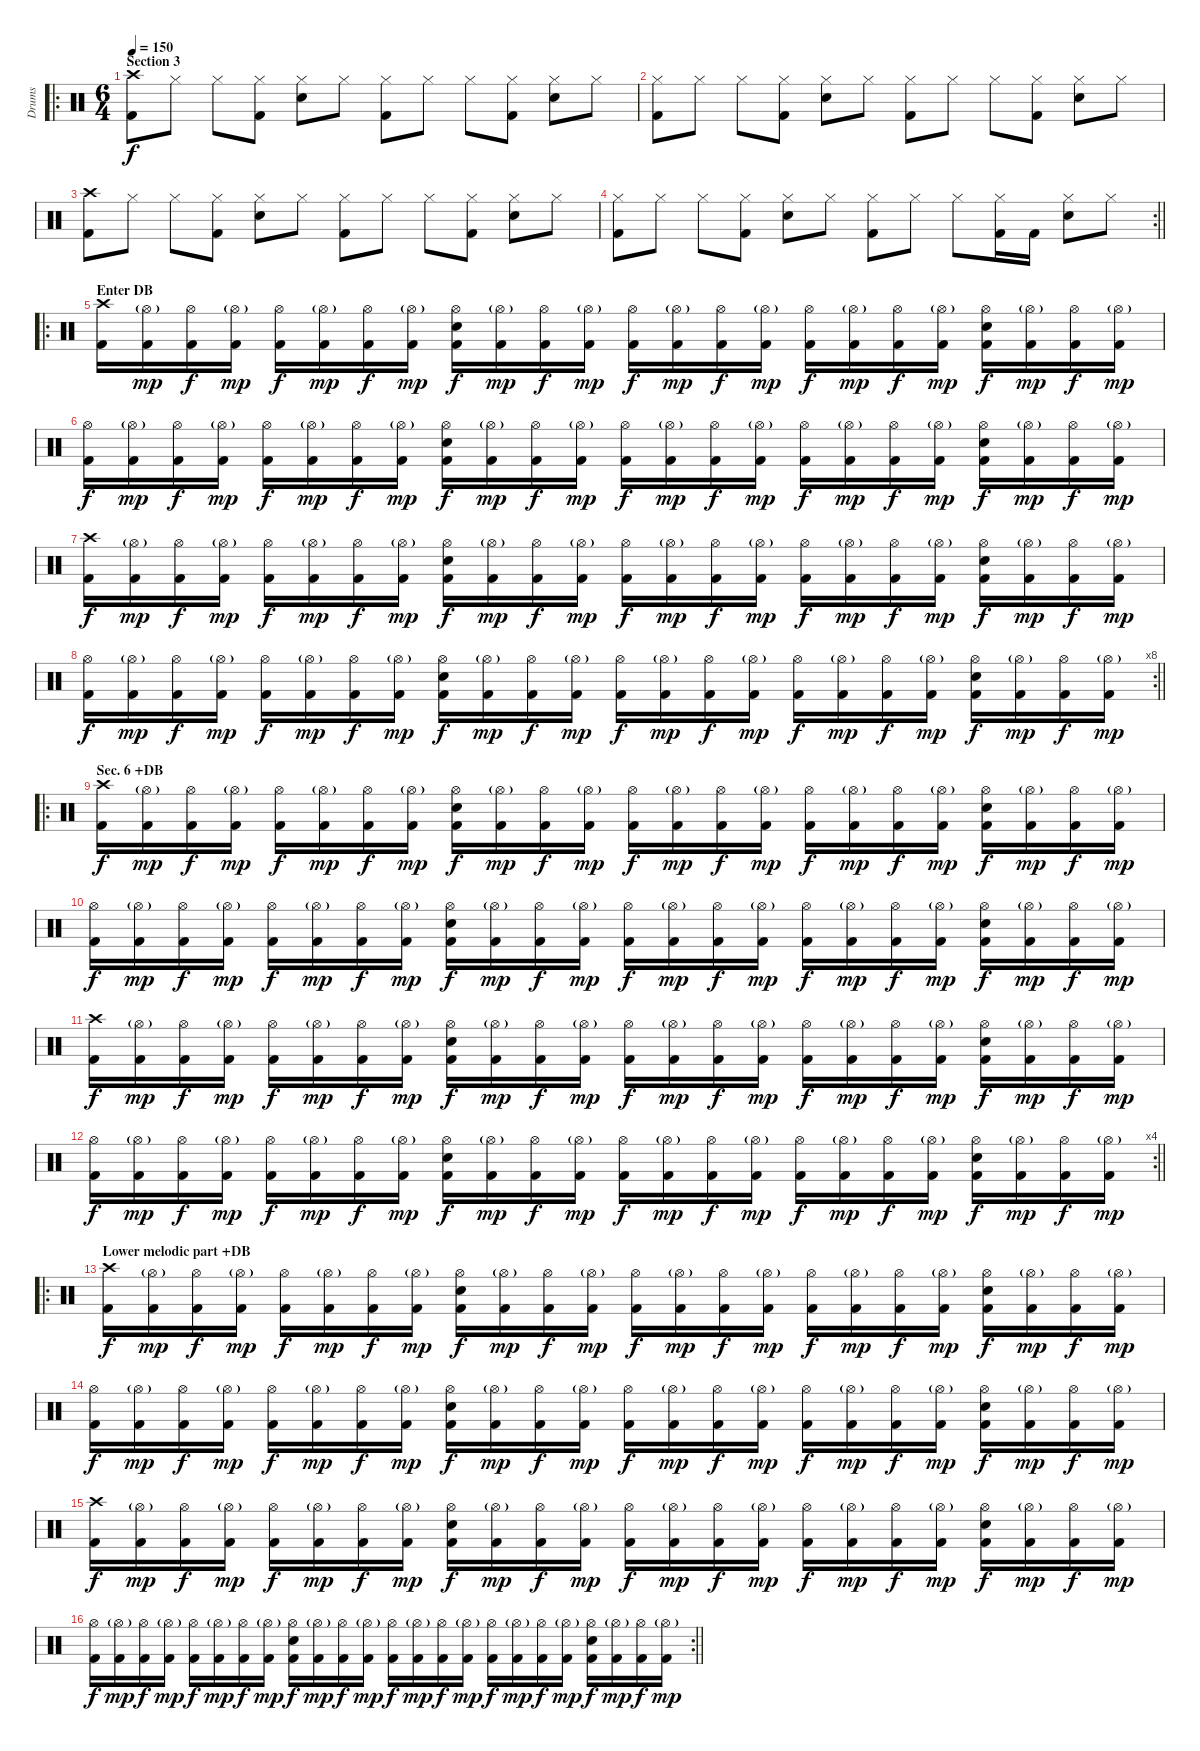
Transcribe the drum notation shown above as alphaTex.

\track ("Drums" "Drums") {instrument percussion}
\staff {score}
\articulation defaults
\ro
\ts (6 4)
\section ("" "Section 3")
\tempo 150
\clef neutral
\ks c
("Kick (hit) 2" "Crash high (hit)").8{dy f} "Hi-Hat (closed)".8 "Hi-Hat (closed)".8 ("Kick (hit) 2" "Hi-Hat (closed)").8 ("Snare (hit) 2" "Hi-Hat (closed)").8 "Hi-Hat (closed)".8 ("Kick (hit) 2" "Hi-Hat (closed)").8 "Hi-Hat (closed)".8 "Hi-Hat (closed)".8 ("Kick (hit) 2" "Hi-Hat (closed)").8 ("Snare (hit) 2" "Hi-Hat (closed)").8 "Hi-Hat (closed)".8 |
("Kick (hit) 2" "Hi-Hat (closed)").8 "Hi-Hat (closed)".8 "Hi-Hat (closed)".8 ("Kick (hit) 2" "Hi-Hat (closed)").8 ("Snare (hit) 2" "Hi-Hat (closed)").8 "Hi-Hat (closed)".8 ("Kick (hit) 2" "Hi-Hat (closed)").8 "Hi-Hat (closed)".8 "Hi-Hat (closed)".8 ("Kick (hit) 2" "Hi-Hat (closed)").8 ("Snare (hit) 2" "Hi-Hat (closed)").8 "Hi-Hat (closed)".8 |
("Kick (hit) 2" "Crash high (hit)").8 "Hi-Hat (closed)".8 "Hi-Hat (closed)".8 ("Kick (hit) 2" "Hi-Hat (closed)").8 ("Snare (hit) 2" "Hi-Hat (closed)").8 "Hi-Hat (closed)".8 ("Kick (hit) 2" "Hi-Hat (closed)").8 "Hi-Hat (closed)".8 "Hi-Hat (closed)".8 ("Kick (hit) 2" "Hi-Hat (closed)").8 ("Snare (hit) 2" "Hi-Hat (closed)").8 "Hi-Hat (closed)".8 |
\rc 2
\barLineRight lightlight
("Kick (hit) 2" "Hi-Hat (closed)").8 "Hi-Hat (closed)".8 "Hi-Hat (closed)".8 ("Kick (hit) 2" "Hi-Hat (closed)").8 ("Snare (hit) 2" "Hi-Hat (closed)").8 "Hi-Hat (closed)".8 ("Kick (hit) 2" "Hi-Hat (closed)").8 "Hi-Hat (closed)".8 "Hi-Hat (closed)".8 ("Kick (hit) 2" "Hi-Hat (closed)").16 "Kick (hit) 2".16 ("Snare (hit) 2" "Hi-Hat (closed)").8 "Hi-Hat (closed)".8 |
\ro
\section ("" "Enter DB")
("Kick (hit) 2" "Crash high (hit)").16 ("Kick (hit) 2" "Hi-Hat (open)"{g}).16{dy mp} ("Kick (hit) 2" "Hi-Hat (open)").16{dy f} ("Kick (hit) 2" "Hi-Hat (open)"{g}).16{dy mp} ("Kick (hit) 2" "Hi-Hat (open)").16{dy f} ("Kick (hit) 2" "Hi-Hat (open)"{g}).16{dy mp} ("Kick (hit) 2" "Hi-Hat (open)").16{dy f} ("Kick (hit) 2" "Hi-Hat (open)"{g}).16{dy mp} ("Kick (hit) 2" "Snare (hit) 2" "Hi-Hat (open)").16{dy f} ("Kick (hit) 2" "Hi-Hat (open)"{g}).16{dy mp} ("Kick (hit) 2" "Hi-Hat (open)").16{dy f} ("Kick (hit) 2" "Hi-Hat (open)"{g}).16{dy mp} ("Kick (hit) 2" "Hi-Hat (open)").16{dy f} ("Kick (hit) 2" "Hi-Hat (open)"{g}).16{dy mp} ("Kick (hit) 2" "Hi-Hat (open)").16{dy f} ("Kick (hit) 2" "Hi-Hat (open)"{g}).16{dy mp} ("Kick (hit) 2" "Hi-Hat (open)").16{dy f} ("Kick (hit) 2" "Hi-Hat (open)"{g}).16{dy mp} ("Kick (hit) 2" "Hi-Hat (open)").16{dy f} ("Kick (hit) 2" "Hi-Hat (open)"{g}).16{dy mp} ("Kick (hit) 2" "Snare (hit) 2" "Hi-Hat (open)").16{dy f} ("Kick (hit) 2" "Hi-Hat (open)"{g}).16{dy mp} ("Kick (hit) 2" "Hi-Hat (open)").16{dy f} ("Kick (hit) 2" "Hi-Hat (open)"{g}).16{dy mp} |
("Kick (hit) 2" "Hi-Hat (open)").16{dy f} ("Kick (hit) 2" "Hi-Hat (open)"{g}).16{dy mp} ("Kick (hit) 2" "Hi-Hat (open)").16{dy f} ("Kick (hit) 2" "Hi-Hat (open)"{g}).16{dy mp} ("Kick (hit) 2" "Hi-Hat (open)").16{dy f} ("Kick (hit) 2" "Hi-Hat (open)"{g}).16{dy mp} ("Kick (hit) 2" "Hi-Hat (open)").16{dy f} ("Kick (hit) 2" "Hi-Hat (open)"{g}).16{dy mp} ("Kick (hit) 2" "Snare (hit) 2" "Hi-Hat (open)").16{dy f} ("Kick (hit) 2" "Hi-Hat (open)"{g}).16{dy mp} ("Kick (hit) 2" "Hi-Hat (open)").16{dy f} ("Kick (hit) 2" "Hi-Hat (open)"{g}).16{dy mp} ("Kick (hit) 2" "Hi-Hat (open)").16{dy f} ("Kick (hit) 2" "Hi-Hat (open)"{g}).16{dy mp} ("Kick (hit) 2" "Hi-Hat (open)").16{dy f} ("Kick (hit) 2" "Hi-Hat (open)"{g}).16{dy mp} ("Kick (hit) 2" "Hi-Hat (open)").16{dy f} ("Kick (hit) 2" "Hi-Hat (open)"{g}).16{dy mp} ("Kick (hit) 2" "Hi-Hat (open)").16{dy f} ("Kick (hit) 2" "Hi-Hat (open)"{g}).16{dy mp} ("Kick (hit) 2" "Snare (hit) 2" "Hi-Hat (open)").16{dy f} ("Kick (hit) 2" "Hi-Hat (open)"{g}).16{dy mp} ("Kick (hit) 2" "Hi-Hat (open)").16{dy f} ("Kick (hit) 2" "Hi-Hat (open)"{g}).16{dy mp} |
("Kick (hit) 2" "Crash high (hit)").16{dy f} ("Kick (hit) 2" "Hi-Hat (open)"{g}).16{dy mp} ("Kick (hit) 2" "Hi-Hat (open)").16{dy f} ("Kick (hit) 2" "Hi-Hat (open)"{g}).16{dy mp} ("Kick (hit) 2" "Hi-Hat (open)").16{dy f} ("Kick (hit) 2" "Hi-Hat (open)"{g}).16{dy mp} ("Kick (hit) 2" "Hi-Hat (open)").16{dy f} ("Kick (hit) 2" "Hi-Hat (open)"{g}).16{dy mp} ("Kick (hit) 2" "Snare (hit) 2" "Hi-Hat (open)").16{dy f} ("Kick (hit) 2" "Hi-Hat (open)"{g}).16{dy mp} ("Kick (hit) 2" "Hi-Hat (open)").16{dy f} ("Kick (hit) 2" "Hi-Hat (open)"{g}).16{dy mp} ("Kick (hit) 2" "Hi-Hat (open)").16{dy f} ("Kick (hit) 2" "Hi-Hat (open)"{g}).16{dy mp} ("Kick (hit) 2" "Hi-Hat (open)").16{dy f} ("Kick (hit) 2" "Hi-Hat (open)"{g}).16{dy mp} ("Kick (hit) 2" "Hi-Hat (open)").16{dy f} ("Kick (hit) 2" "Hi-Hat (open)"{g}).16{dy mp} ("Kick (hit) 2" "Hi-Hat (open)").16{dy f} ("Kick (hit) 2" "Hi-Hat (open)"{g}).16{dy mp} ("Kick (hit) 2" "Snare (hit) 2" "Hi-Hat (open)").16{dy f} ("Kick (hit) 2" "Hi-Hat (open)"{g}).16{dy mp} ("Kick (hit) 2" "Hi-Hat (open)").16{dy f} ("Kick (hit) 2" "Hi-Hat (open)"{g}).16{dy mp} |
\rc 8
\barLineRight lightlight
("Kick (hit) 2" "Hi-Hat (open)").16{dy f} ("Kick (hit) 2" "Hi-Hat (open)"{g}).16{dy mp} ("Kick (hit) 2" "Hi-Hat (open)").16{dy f} ("Kick (hit) 2" "Hi-Hat (open)"{g}).16{dy mp} ("Kick (hit) 2" "Hi-Hat (open)").16{dy f} ("Kick (hit) 2" "Hi-Hat (open)"{g}).16{dy mp} ("Kick (hit) 2" "Hi-Hat (open)").16{dy f} ("Kick (hit) 2" "Hi-Hat (open)"{g}).16{dy mp} ("Kick (hit) 2" "Snare (hit) 2" "Hi-Hat (open)").16{dy f} ("Kick (hit) 2" "Hi-Hat (open)"{g}).16{dy mp} ("Kick (hit) 2" "Hi-Hat (open)").16{dy f} ("Kick (hit) 2" "Hi-Hat (open)"{g}).16{dy mp} ("Kick (hit) 2" "Hi-Hat (open)").16{dy f} ("Kick (hit) 2" "Hi-Hat (open)"{g}).16{dy mp} ("Kick (hit) 2" "Hi-Hat (open)").16{dy f} ("Kick (hit) 2" "Hi-Hat (open)"{g}).16{dy mp} ("Kick (hit) 2" "Hi-Hat (open)").16{dy f} ("Kick (hit) 2" "Hi-Hat (open)"{g}).16{dy mp} ("Kick (hit) 2" "Hi-Hat (open)").16{dy f} ("Kick (hit) 2" "Hi-Hat (open)"{g}).16{dy mp} ("Kick (hit) 2" "Snare (hit) 2" "Hi-Hat (open)").16{dy f} ("Kick (hit) 2" "Hi-Hat (open)"{g}).16{dy mp} ("Kick (hit) 2" "Hi-Hat (open)").16{dy f} ("Kick (hit) 2" "Hi-Hat (open)"{g}).16{dy mp} |
\ro
\section ("" "Sec. 6 +DB")
("Kick (hit) 2" "Crash high (hit)").16{dy f} ("Kick (hit) 2" "Hi-Hat (open)"{g}).16{dy mp} ("Kick (hit) 2" "Hi-Hat (open)").16{dy f} ("Kick (hit) 2" "Hi-Hat (open)"{g}).16{dy mp} ("Kick (hit) 2" "Hi-Hat (open)").16{dy f} ("Kick (hit) 2" "Hi-Hat (open)"{g}).16{dy mp} ("Kick (hit) 2" "Hi-Hat (open)").16{dy f} ("Kick (hit) 2" "Hi-Hat (open)"{g}).16{dy mp} ("Kick (hit) 2" "Snare (hit) 2" "Hi-Hat (open)").16{dy f} ("Kick (hit) 2" "Hi-Hat (open)"{g}).16{dy mp} ("Kick (hit) 2" "Hi-Hat (open)").16{dy f} ("Kick (hit) 2" "Hi-Hat (open)"{g}).16{dy mp} ("Kick (hit) 2" "Hi-Hat (open)").16{dy f} ("Kick (hit) 2" "Hi-Hat (open)"{g}).16{dy mp} ("Kick (hit) 2" "Hi-Hat (open)").16{dy f} ("Kick (hit) 2" "Hi-Hat (open)"{g}).16{dy mp} ("Kick (hit) 2" "Hi-Hat (open)").16{dy f} ("Kick (hit) 2" "Hi-Hat (open)"{g}).16{dy mp} ("Kick (hit) 2" "Hi-Hat (open)").16{dy f} ("Kick (hit) 2" "Hi-Hat (open)"{g}).16{dy mp} ("Kick (hit) 2" "Snare (hit) 2" "Hi-Hat (open)").16{dy f} ("Kick (hit) 2" "Hi-Hat (open)"{g}).16{dy mp} ("Kick (hit) 2" "Hi-Hat (open)").16{dy f} ("Kick (hit) 2" "Hi-Hat (open)"{g}).16{dy mp} |
("Kick (hit) 2" "Hi-Hat (open)").16{dy f} ("Kick (hit) 2" "Hi-Hat (open)"{g}).16{dy mp} ("Kick (hit) 2" "Hi-Hat (open)").16{dy f} ("Kick (hit) 2" "Hi-Hat (open)"{g}).16{dy mp} ("Kick (hit) 2" "Hi-Hat (open)").16{dy f} ("Kick (hit) 2" "Hi-Hat (open)"{g}).16{dy mp} ("Kick (hit) 2" "Hi-Hat (open)").16{dy f} ("Kick (hit) 2" "Hi-Hat (open)"{g}).16{dy mp} ("Kick (hit) 2" "Snare (hit) 2" "Hi-Hat (open)").16{dy f} ("Kick (hit) 2" "Hi-Hat (open)"{g}).16{dy mp} ("Kick (hit) 2" "Hi-Hat (open)").16{dy f} ("Kick (hit) 2" "Hi-Hat (open)"{g}).16{dy mp} ("Kick (hit) 2" "Hi-Hat (open)").16{dy f} ("Kick (hit) 2" "Hi-Hat (open)"{g}).16{dy mp} ("Kick (hit) 2" "Hi-Hat (open)").16{dy f} ("Kick (hit) 2" "Hi-Hat (open)"{g}).16{dy mp} ("Kick (hit) 2" "Hi-Hat (open)").16{dy f} ("Kick (hit) 2" "Hi-Hat (open)"{g}).16{dy mp} ("Kick (hit) 2" "Hi-Hat (open)").16{dy f} ("Kick (hit) 2" "Hi-Hat (open)"{g}).16{dy mp} ("Kick (hit) 2" "Snare (hit) 2" "Hi-Hat (open)").16{dy f} ("Kick (hit) 2" "Hi-Hat (open)"{g}).16{dy mp} ("Kick (hit) 2" "Hi-Hat (open)").16{dy f} ("Kick (hit) 2" "Hi-Hat (open)"{g}).16{dy mp} |
("Kick (hit) 2" "Crash high (hit)").16{dy f} ("Kick (hit) 2" "Hi-Hat (open)"{g}).16{dy mp} ("Kick (hit) 2" "Hi-Hat (open)").16{dy f} ("Kick (hit) 2" "Hi-Hat (open)"{g}).16{dy mp} ("Kick (hit) 2" "Hi-Hat (open)").16{dy f} ("Kick (hit) 2" "Hi-Hat (open)"{g}).16{dy mp} ("Kick (hit) 2" "Hi-Hat (open)").16{dy f} ("Kick (hit) 2" "Hi-Hat (open)"{g}).16{dy mp} ("Kick (hit) 2" "Snare (hit) 2" "Hi-Hat (open)").16{dy f} ("Kick (hit) 2" "Hi-Hat (open)"{g}).16{dy mp} ("Kick (hit) 2" "Hi-Hat (open)").16{dy f} ("Kick (hit) 2" "Hi-Hat (open)"{g}).16{dy mp} ("Kick (hit) 2" "Hi-Hat (open)").16{dy f} ("Kick (hit) 2" "Hi-Hat (open)"{g}).16{dy mp} ("Kick (hit) 2" "Hi-Hat (open)").16{dy f} ("Kick (hit) 2" "Hi-Hat (open)"{g}).16{dy mp} ("Kick (hit) 2" "Hi-Hat (open)").16{dy f} ("Kick (hit) 2" "Hi-Hat (open)"{g}).16{dy mp} ("Kick (hit) 2" "Hi-Hat (open)").16{dy f} ("Kick (hit) 2" "Hi-Hat (open)"{g}).16{dy mp} ("Kick (hit) 2" "Snare (hit) 2" "Hi-Hat (open)").16{dy f} ("Kick (hit) 2" "Hi-Hat (open)"{g}).16{dy mp} ("Kick (hit) 2" "Hi-Hat (open)").16{dy f} ("Kick (hit) 2" "Hi-Hat (open)"{g}).16{dy mp} |
\rc 4
\barLineRight lightlight
("Kick (hit) 2" "Hi-Hat (open)").16{dy f} ("Kick (hit) 2" "Hi-Hat (open)"{g}).16{dy mp} ("Kick (hit) 2" "Hi-Hat (open)").16{dy f} ("Kick (hit) 2" "Hi-Hat (open)"{g}).16{dy mp} ("Kick (hit) 2" "Hi-Hat (open)").16{dy f} ("Kick (hit) 2" "Hi-Hat (open)"{g}).16{dy mp} ("Kick (hit) 2" "Hi-Hat (open)").16{dy f} ("Kick (hit) 2" "Hi-Hat (open)"{g}).16{dy mp} ("Kick (hit) 2" "Snare (hit) 2" "Hi-Hat (open)").16{dy f} ("Kick (hit) 2" "Hi-Hat (open)"{g}).16{dy mp} ("Kick (hit) 2" "Hi-Hat (open)").16{dy f} ("Kick (hit) 2" "Hi-Hat (open)"{g}).16{dy mp} ("Kick (hit) 2" "Hi-Hat (open)").16{dy f} ("Kick (hit) 2" "Hi-Hat (open)"{g}).16{dy mp} ("Kick (hit) 2" "Hi-Hat (open)").16{dy f} ("Kick (hit) 2" "Hi-Hat (open)"{g}).16{dy mp} ("Kick (hit) 2" "Hi-Hat (open)").16{dy f} ("Kick (hit) 2" "Hi-Hat (open)"{g}).16{dy mp} ("Kick (hit) 2" "Hi-Hat (open)").16{dy f} ("Kick (hit) 2" "Hi-Hat (open)"{g}).16{dy mp} ("Kick (hit) 2" "Snare (hit) 2" "Hi-Hat (open)").16{dy f} ("Kick (hit) 2" "Hi-Hat (open)"{g}).16{dy mp} ("Kick (hit) 2" "Hi-Hat (open)").16{dy f} ("Kick (hit) 2" "Hi-Hat (open)"{g}).16{dy mp} |
\ro
\section ("" "Lower melodic part +DB")
("Kick (hit) 2" "Crash high (hit)").16{dy f} ("Kick (hit) 2" "Hi-Hat (open)"{g}).16{dy mp} ("Kick (hit) 2" "Hi-Hat (open)").16{dy f} ("Kick (hit) 2" "Hi-Hat (open)"{g}).16{dy mp} ("Kick (hit) 2" "Hi-Hat (open)").16{dy f} ("Kick (hit) 2" "Hi-Hat (open)"{g}).16{dy mp} ("Kick (hit) 2" "Hi-Hat (open)").16{dy f} ("Kick (hit) 2" "Hi-Hat (open)"{g}).16{dy mp} ("Kick (hit) 2" "Snare (hit) 2" "Hi-Hat (open)").16{dy f} ("Kick (hit) 2" "Hi-Hat (open)"{g}).16{dy mp} ("Kick (hit) 2" "Hi-Hat (open)").16{dy f} ("Kick (hit) 2" "Hi-Hat (open)"{g}).16{dy mp} ("Kick (hit) 2" "Hi-Hat (open)").16{dy f} ("Kick (hit) 2" "Hi-Hat (open)"{g}).16{dy mp} ("Kick (hit) 2" "Hi-Hat (open)").16{dy f} ("Kick (hit) 2" "Hi-Hat (open)"{g}).16{dy mp} ("Kick (hit) 2" "Hi-Hat (open)").16{dy f} ("Kick (hit) 2" "Hi-Hat (open)"{g}).16{dy mp} ("Kick (hit) 2" "Hi-Hat (open)").16{dy f} ("Kick (hit) 2" "Hi-Hat (open)"{g}).16{dy mp} ("Kick (hit) 2" "Snare (hit) 2" "Hi-Hat (open)").16{dy f} ("Kick (hit) 2" "Hi-Hat (open)"{g}).16{dy mp} ("Kick (hit) 2" "Hi-Hat (open)").16{dy f} ("Kick (hit) 2" "Hi-Hat (open)"{g}).16{dy mp} |
("Kick (hit) 2" "Hi-Hat (open)").16{dy f} ("Kick (hit) 2" "Hi-Hat (open)"{g}).16{dy mp} ("Kick (hit) 2" "Hi-Hat (open)").16{dy f} ("Kick (hit) 2" "Hi-Hat (open)"{g}).16{dy mp} ("Kick (hit) 2" "Hi-Hat (open)").16{dy f} ("Kick (hit) 2" "Hi-Hat (open)"{g}).16{dy mp} ("Kick (hit) 2" "Hi-Hat (open)").16{dy f} ("Kick (hit) 2" "Hi-Hat (open)"{g}).16{dy mp} ("Kick (hit) 2" "Snare (hit) 2" "Hi-Hat (open)").16{dy f} ("Kick (hit) 2" "Hi-Hat (open)"{g}).16{dy mp} ("Kick (hit) 2" "Hi-Hat (open)").16{dy f} ("Kick (hit) 2" "Hi-Hat (open)"{g}).16{dy mp} ("Kick (hit) 2" "Hi-Hat (open)").16{dy f} ("Kick (hit) 2" "Hi-Hat (open)"{g}).16{dy mp} ("Kick (hit) 2" "Hi-Hat (open)").16{dy f} ("Kick (hit) 2" "Hi-Hat (open)"{g}).16{dy mp} ("Kick (hit) 2" "Hi-Hat (open)").16{dy f} ("Kick (hit) 2" "Hi-Hat (open)"{g}).16{dy mp} ("Kick (hit) 2" "Hi-Hat (open)").16{dy f} ("Kick (hit) 2" "Hi-Hat (open)"{g}).16{dy mp} ("Kick (hit) 2" "Snare (hit) 2" "Hi-Hat (open)").16{dy f} ("Kick (hit) 2" "Hi-Hat (open)"{g}).16{dy mp} ("Kick (hit) 2" "Hi-Hat (open)").16{dy f} ("Kick (hit) 2" "Hi-Hat (open)"{g}).16{dy mp} |
("Kick (hit) 2" "Crash high (hit)").16{dy f} ("Kick (hit) 2" "Hi-Hat (open)"{g}).16{dy mp} ("Kick (hit) 2" "Hi-Hat (open)").16{dy f} ("Kick (hit) 2" "Hi-Hat (open)"{g}).16{dy mp} ("Kick (hit) 2" "Hi-Hat (open)").16{dy f} ("Kick (hit) 2" "Hi-Hat (open)"{g}).16{dy mp} ("Kick (hit) 2" "Hi-Hat (open)").16{dy f} ("Kick (hit) 2" "Hi-Hat (open)"{g}).16{dy mp} ("Kick (hit) 2" "Snare (hit) 2" "Hi-Hat (open)").16{dy f} ("Kick (hit) 2" "Hi-Hat (open)"{g}).16{dy mp} ("Kick (hit) 2" "Hi-Hat (open)").16{dy f} ("Kick (hit) 2" "Hi-Hat (open)"{g}).16{dy mp} ("Kick (hit) 2" "Hi-Hat (open)").16{dy f} ("Kick (hit) 2" "Hi-Hat (open)"{g}).16{dy mp} ("Kick (hit) 2" "Hi-Hat (open)").16{dy f} ("Kick (hit) 2" "Hi-Hat (open)"{g}).16{dy mp} ("Kick (hit) 2" "Hi-Hat (open)").16{dy f} ("Kick (hit) 2" "Hi-Hat (open)"{g}).16{dy mp} ("Kick (hit) 2" "Hi-Hat (open)").16{dy f} ("Kick (hit) 2" "Hi-Hat (open)"{g}).16{dy mp} ("Kick (hit) 2" "Snare (hit) 2" "Hi-Hat (open)").16{dy f} ("Kick (hit) 2" "Hi-Hat (open)"{g}).16{dy mp} ("Kick (hit) 2" "Hi-Hat (open)").16{dy f} ("Kick (hit) 2" "Hi-Hat (open)"{g}).16{dy mp} |
\rc 2
\barLineRight lightlight
("Kick (hit) 2" "Hi-Hat (open)").16{dy f} ("Kick (hit) 2" "Hi-Hat (open)"{g}).16{dy mp} ("Kick (hit) 2" "Hi-Hat (open)").16{dy f} ("Kick (hit) 2" "Hi-Hat (open)"{g}).16{dy mp} ("Kick (hit) 2" "Hi-Hat (open)").16{dy f} ("Kick (hit) 2" "Hi-Hat (open)"{g}).16{dy mp} ("Kick (hit) 2" "Hi-Hat (open)").16{dy f} ("Kick (hit) 2" "Hi-Hat (open)"{g}).16{dy mp} ("Kick (hit) 2" "Snare (hit) 2" "Hi-Hat (open)").16{dy f} ("Kick (hit) 2" "Hi-Hat (open)"{g}).16{dy mp} ("Kick (hit) 2" "Hi-Hat (open)").16{dy f} ("Kick (hit) 2" "Hi-Hat (open)"{g}).16{dy mp} ("Kick (hit) 2" "Hi-Hat (open)").16{dy f} ("Kick (hit) 2" "Hi-Hat (open)"{g}).16{dy mp} ("Kick (hit) 2" "Hi-Hat (open)").16{dy f} ("Kick (hit) 2" "Hi-Hat (open)"{g}).16{dy mp} ("Kick (hit) 2" "Hi-Hat (open)").16{dy f} ("Kick (hit) 2" "Hi-Hat (open)"{g}).16{dy mp} ("Kick (hit) 2" "Hi-Hat (open)").16{dy f} ("Kick (hit) 2" "Hi-Hat (open)"{g}).16{dy mp} ("Kick (hit) 2" "Snare (hit) 2" "Hi-Hat (open)").16{dy f} ("Kick (hit) 2" "Hi-Hat (open)"{g}).16{dy mp} ("Kick (hit) 2" "Hi-Hat (open)").16{dy f} ("Kick (hit) 2" "Hi-Hat (open)"{g}).16{dy mp}
